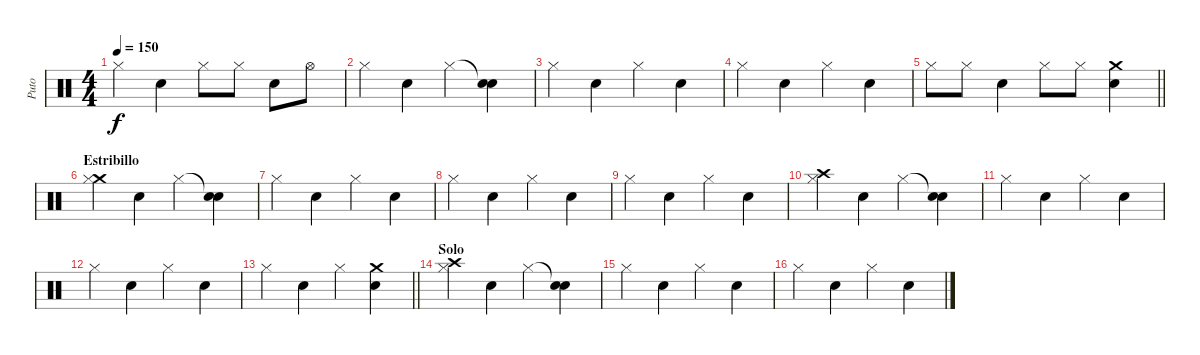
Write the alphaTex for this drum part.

\track ("Puto" "Puto") {instrument percussion}
\staff {score}
\articulation defaults
\ts (4 4)
\tempo 150
\clef neutral
\ks c "Hi-Hat (closed)".4{dy f} "Electric Snare (hit)".4 "Hi-Hat (closed)".8 "Hi-Hat (closed)".8 "Electric Snare (hit)".8 "Hi-Hat (open)".8
|
"Hi-Hat (closed)".4 "Electric Snare (hit)".4 "Hi-Hat (closed)".4 ("Snare (hit)"{t} "Electric Snare (hit)").4 |
"Hi-Hat (closed)".4 "Electric Snare (hit)".4 "Hi-Hat (closed)".4 "Electric Snare (hit)".4 |
"Hi-Hat (closed)".4 "Electric Snare (hit)".4 "Hi-Hat (closed)".4 "Electric Snare (hit)".4 |
\barLineRight lightlight "Hi-Hat (closed)".8 "Hi-Hat (closed)".8 "Electric Snare (hit)".4 "Hi-Hat (closed)".8 "Hi-Hat (closed)".8
("Crash medium (hit)" "Electric Snare (hit)").4 |
\section ("" "Estribillo")
("Crash medium (hit)" "Hi-Hat (closed)").4 "Electric Snare (hit)".4 "Hi-Hat (closed)".4 ("Snare (hit)"{t} "Electric Snare (hit)").4 |
"Hi-Hat (closed)".4 "Electric Snare (hit)".4 "Hi-Hat (closed)".4 "Electric Snare (hit)".4 |
"Hi-Hat (closed)".4 "Electric Snare (hit)".4 "Hi-Hat (closed)".4 "Electric Snare (hit)".4 |
"Hi-Hat (closed)".4 "Electric Snare (hit)".4 "Hi-Hat (closed)".4 "Electric Snare (hit)".4 |
("Crash high (hit)" "Hi-Hat (closed)").4 "Electric Snare (hit)".4 "Hi-Hat (closed)".4 ("Snare (hit)"{t} "Electric Snare (hit)").4 |
"Hi-Hat (closed)".4 "Electric Snare (hit)".4 "Hi-Hat (closed)".4 "Electric Snare (hit)".4 |
"Hi-Hat (closed)".4 "Electric Snare (hit)".4 "Hi-Hat (closed)".4 "Electric Snare (hit)".4 |
\barLineRight lightlight "Hi-Hat (closed)".4 "Electric Snare (hit)".4 "Hi-Hat (closed)".4
("Crash medium (hit)" "Electric Snare (hit)").4 |
\section ("" "Solo")
("Crash high (hit)" "Hi-Hat (closed)").4 "Electric Snare (hit)".4 "Hi-Hat (closed)".4 ("Snare (hit)"{t} "Electric Snare (hit)").4 |
"Hi-Hat (closed)".4 "Electric Snare (hit)".4 "Hi-Hat (closed)".4 "Electric Snare (hit)".4 |
"Hi-Hat (closed)".4 "Electric Snare (hit)".4 "Hi-Hat (closed)".4 "Electric Snare (hit)".4
